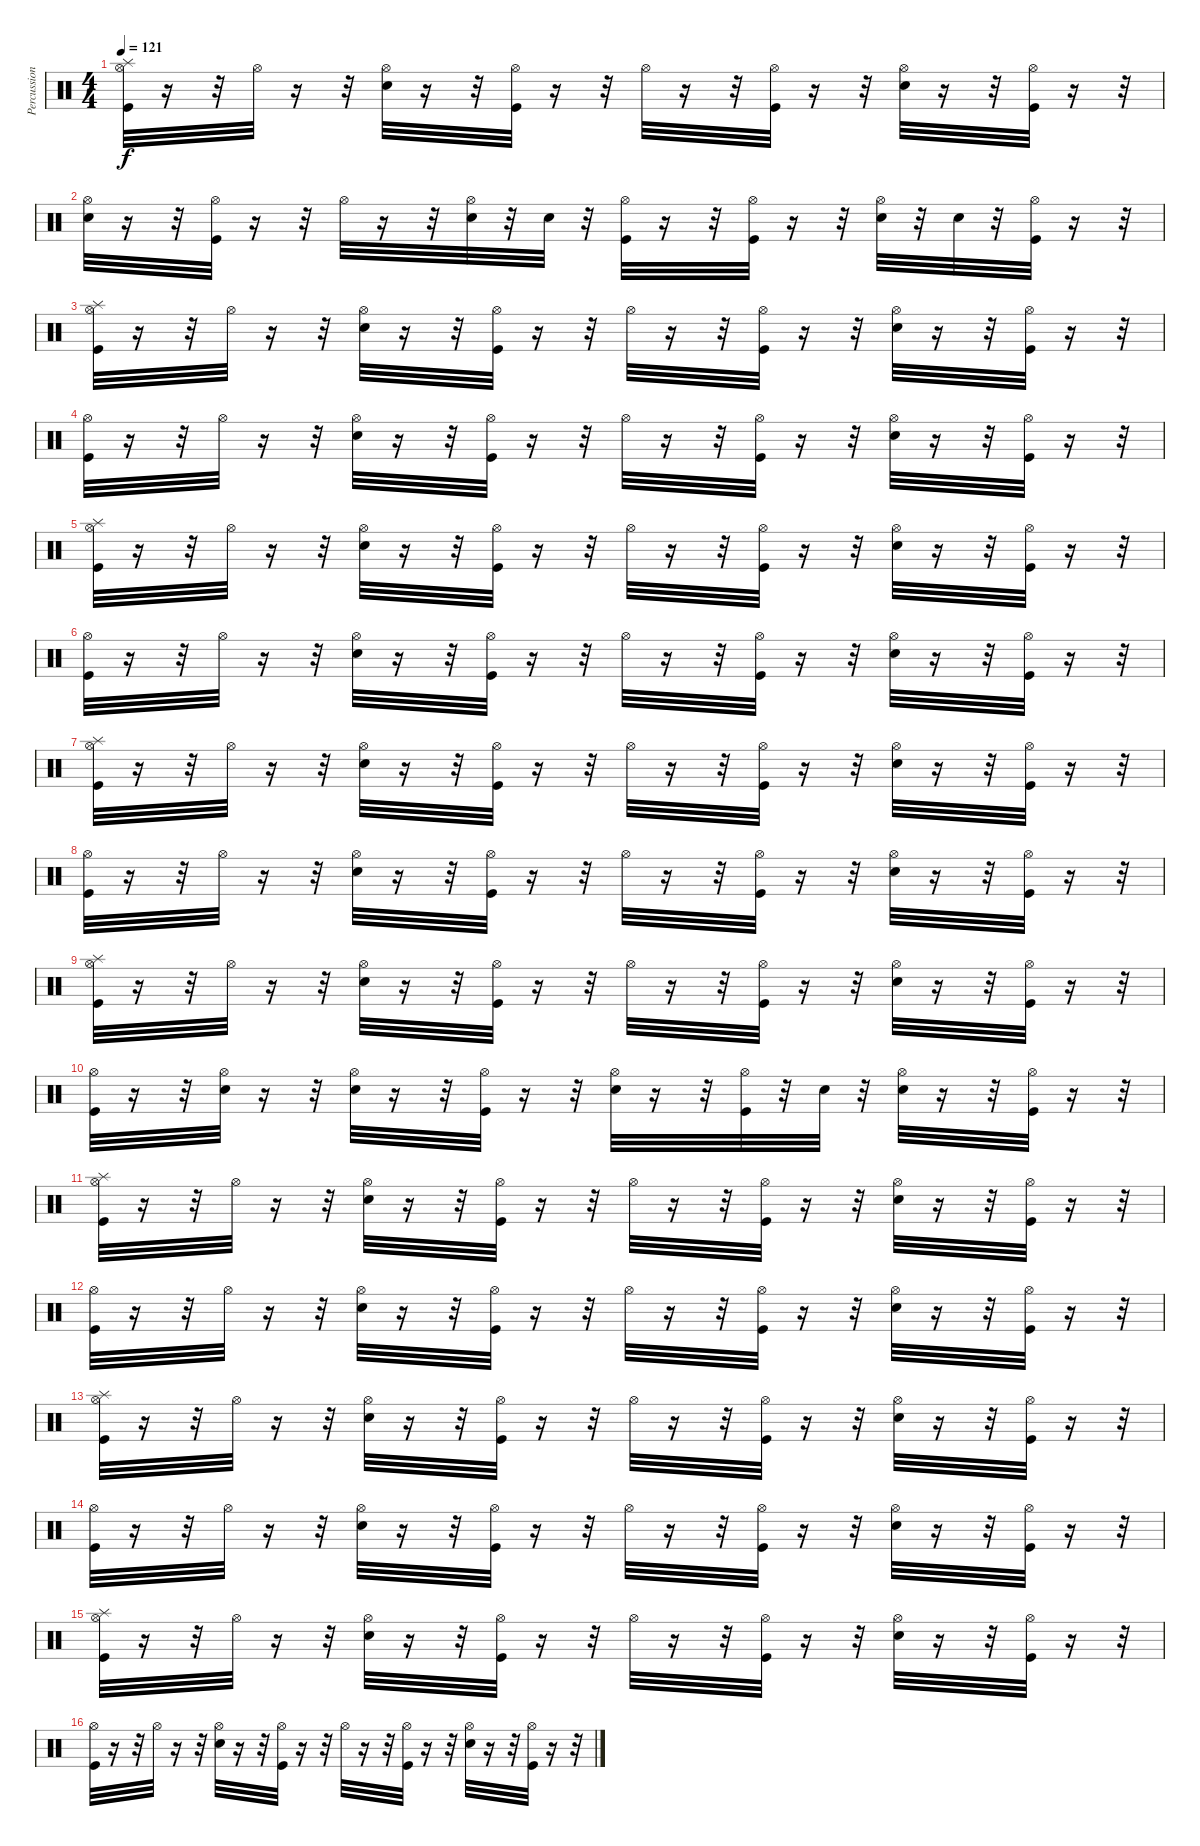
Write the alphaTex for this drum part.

\track ("Percussion" "Percussion") {instrument percussion}
\staff {score}
\articulation defaults
\ts (4 4)
\tempo 121
\clef neutral
\ks c
("Hi-Hat (open)" "Splash (hit)" "Kick (hit)").32{dy f} r.16 r.32 "Hi-Hat (open)".32 r.16 r.32 ("Hi-Hat (open)" "Snare (hit) 2").32 r.16 r.32 ("Hi-Hat (open)" "Kick (hit)").32 r.16 r.32 "Hi-Hat (open)".32 r.16 r.32 ("Hi-Hat (open)" "Kick (hit)").32 r.16 r.32 ("Hi-Hat (open)" "Snare (hit) 2").32 r.16 r.32 ("Hi-Hat (open)" "Kick (hit)").32 r.16 r.32 |
("Snare (hit) 2" "Hi-Hat (open)").32 r.16 r.32 ("Kick (hit)" "Hi-Hat (open)").32 r.16 r.32 "Hi-Hat (open)".32 r.16 r.32 ("Snare (hit) 2" "Hi-Hat (open)").32 r.32 "Snare (hit) 2".32 r.32 ("Kick (hit)" "Hi-Hat (open)").32 r.16 r.32 ("Kick (hit)" "Hi-Hat (open)").32 r.16 r.32 ("Hi-Hat (open)" "Snare (hit) 2").32 r.32 "Snare (hit) 2".32 r.32 ("Kick (hit)" "Hi-Hat (open)").32 r.16 r.32 |
("Hi-Hat (open)" "Splash (hit)" "Kick (hit)").32 r.16 r.32 "Hi-Hat (open)".32 r.16 r.32 ("Hi-Hat (open)" "Snare (hit) 2").32 r.16 r.32 ("Hi-Hat (open)" "Kick (hit)").32 r.16 r.32 "Hi-Hat (open)".32 r.16 r.32 ("Hi-Hat (open)" "Kick (hit)").32 r.16 r.32 ("Hi-Hat (open)" "Snare (hit) 2").32 r.16 r.32 ("Hi-Hat (open)" "Kick (hit)").32 r.16 r.32 |
("Hi-Hat (open)" "Kick (hit)").32 r.16 r.32 "Hi-Hat (open)".32 r.16 r.32 ("Snare (hit) 2" "Hi-Hat (open)").32 r.16 r.32 ("Kick (hit)" "Hi-Hat (open)").32 r.16 r.32 "Hi-Hat (open)".32 r.16 r.32 ("Kick (hit)" "Hi-Hat (open)").32 r.16 r.32 ("Hi-Hat (open)" "Snare (hit) 2").32 r.16 r.32 ("Kick (hit)" "Hi-Hat (open)").32 r.16 r.32 |
("Hi-Hat (open)" "Splash (hit)" "Kick (hit)").32 r.16 r.32 "Hi-Hat (open)".32 r.16 r.32 ("Hi-Hat (open)" "Snare (hit) 2").32 r.16 r.32 ("Hi-Hat (open)" "Kick (hit)").32 r.16 r.32 "Hi-Hat (open)".32 r.16 r.32 ("Hi-Hat (open)" "Kick (hit)").32 r.16 r.32 ("Hi-Hat (open)" "Snare (hit) 2").32 r.16 r.32 ("Hi-Hat (open)" "Kick (hit)").32 r.16 r.32 |
("Hi-Hat (open)" "Kick (hit)").32 r.16 r.32 "Hi-Hat (open)".32 r.16 r.32 ("Snare (hit) 2" "Hi-Hat (open)").32 r.16 r.32 ("Kick (hit)" "Hi-Hat (open)").32 r.16 r.32 "Hi-Hat (open)".32 r.16 r.32 ("Kick (hit)" "Hi-Hat (open)").32 r.16 r.32 ("Hi-Hat (open)" "Snare (hit) 2").32 r.16 r.32 ("Kick (hit)" "Hi-Hat (open)").32 r.16 r.32 |
("Hi-Hat (open)" "Splash (hit)" "Kick (hit)").32 r.16 r.32 "Hi-Hat (open)".32 r.16 r.32 ("Hi-Hat (open)" "Snare (hit) 2").32 r.16 r.32 ("Hi-Hat (open)" "Kick (hit)").32 r.16 r.32 "Hi-Hat (open)".32 r.16 r.32 ("Hi-Hat (open)" "Kick (hit)").32 r.16 r.32 ("Hi-Hat (open)" "Snare (hit) 2").32 r.16 r.32 ("Hi-Hat (open)" "Kick (hit)").32 r.16 r.32 |
("Hi-Hat (open)" "Kick (hit)").32 r.16 r.32 "Hi-Hat (open)".32 r.16 r.32 ("Snare (hit) 2" "Hi-Hat (open)").32 r.16 r.32 ("Kick (hit)" "Hi-Hat (open)").32 r.16 r.32 "Hi-Hat (open)".32 r.16 r.32 ("Kick (hit)" "Hi-Hat (open)").32 r.16 r.32 ("Hi-Hat (open)" "Snare (hit) 2").32 r.16 r.32 ("Kick (hit)" "Hi-Hat (open)").32 r.16 r.32 |
("Hi-Hat (open)" "Splash (hit)" "Kick (hit)").32 r.16 r.32 "Hi-Hat (open)".32 r.16 r.32 ("Hi-Hat (open)" "Snare (hit) 2").32 r.16 r.32 ("Hi-Hat (open)" "Kick (hit)").32 r.16 r.32 "Hi-Hat (open)".32 r.16 r.32 ("Hi-Hat (open)" "Kick (hit)").32 r.16 r.32 ("Hi-Hat (open)" "Snare (hit) 2").32 r.16 r.32 ("Hi-Hat (open)" "Kick (hit)").32 r.16 r.32 |
("Hi-Hat (open)" "Kick (hit)").32 r.16 r.32 ("Snare (hit) 2" "Hi-Hat (open)").32 r.16 r.32 ("Snare (hit) 2" "Hi-Hat (open)").32 r.16 r.32 ("Kick (hit)" "Hi-Hat (open)").32 r.16 r.32 ("Snare (hit) 2" "Hi-Hat (open)").32 r.16 r.32 ("Kick (hit)" "Hi-Hat (open)").32 r.32 "Snare (hit) 2".32 r.32 ("Snare (hit) 2" "Hi-Hat (open)").32 r.16 r.32 ("Kick (hit)" "Hi-Hat (open)").32 r.16 r.32 |
("Hi-Hat (open)" "Splash (hit)" "Kick (hit)").32 r.16 r.32 "Hi-Hat (open)".32 r.16 r.32 ("Hi-Hat (open)" "Snare (hit) 2").32 r.16 r.32 ("Hi-Hat (open)" "Kick (hit)").32 r.16 r.32 "Hi-Hat (open)".32 r.16 r.32 ("Hi-Hat (open)" "Kick (hit)").32 r.16 r.32 ("Hi-Hat (open)" "Snare (hit) 2").32 r.16 r.32 ("Hi-Hat (open)" "Kick (hit)").32 r.16 r.32 |
("Hi-Hat (open)" "Kick (hit)").32 r.16 r.32 "Hi-Hat (open)".32 r.16 r.32 ("Snare (hit) 2" "Hi-Hat (open)").32 r.16 r.32 ("Kick (hit)" "Hi-Hat (open)").32 r.16 r.32 "Hi-Hat (open)".32 r.16 r.32 ("Kick (hit)" "Hi-Hat (open)").32 r.16 r.32 ("Hi-Hat (open)" "Snare (hit) 2").32 r.16 r.32 ("Kick (hit)" "Hi-Hat (open)").32 r.16 r.32 |
("Hi-Hat (open)" "Splash (hit)" "Kick (hit)").32 r.16 r.32 "Hi-Hat (open)".32 r.16 r.32 ("Hi-Hat (open)" "Snare (hit) 2").32 r.16 r.32 ("Hi-Hat (open)" "Kick (hit)").32 r.16 r.32 "Hi-Hat (open)".32 r.16 r.32 ("Hi-Hat (open)" "Kick (hit)").32 r.16 r.32 ("Hi-Hat (open)" "Snare (hit) 2").32 r.16 r.32 ("Hi-Hat (open)" "Kick (hit)").32 r.16 r.32 |
("Hi-Hat (open)" "Kick (hit)").32 r.16 r.32 "Hi-Hat (open)".32 r.16 r.32 ("Snare (hit) 2" "Hi-Hat (open)").32 r.16 r.32 ("Kick (hit)" "Hi-Hat (open)").32 r.16 r.32 "Hi-Hat (open)".32 r.16 r.32 ("Kick (hit)" "Hi-Hat (open)").32 r.16 r.32 ("Hi-Hat (open)" "Snare (hit) 2").32 r.16 r.32 ("Kick (hit)" "Hi-Hat (open)").32 r.16 r.32 |
("Hi-Hat (open)" "Splash (hit)" "Kick (hit)").32 r.16 r.32 "Hi-Hat (open)".32 r.16 r.32 ("Hi-Hat (open)" "Snare (hit) 2").32 r.16 r.32 ("Hi-Hat (open)" "Kick (hit)").32 r.16 r.32 "Hi-Hat (open)".32 r.16 r.32 ("Hi-Hat (open)" "Kick (hit)").32 r.16 r.32 ("Hi-Hat (open)" "Snare (hit) 2").32 r.16 r.32 ("Hi-Hat (open)" "Kick (hit)").32 r.16 r.32 |
("Hi-Hat (open)" "Kick (hit)").32 r.16 r.32 "Hi-Hat (open)".32 r.16 r.32 ("Snare (hit) 2" "Hi-Hat (open)").32 r.16 r.32 ("Kick (hit)" "Hi-Hat (open)").32 r.16 r.32 "Hi-Hat (open)".32 r.16 r.32 ("Kick (hit)" "Hi-Hat (open)").32 r.16 r.32 ("Hi-Hat (open)" "Snare (hit) 2").32 r.16 r.32 ("Kick (hit)" "Hi-Hat (open)").32 r.16 r.32
